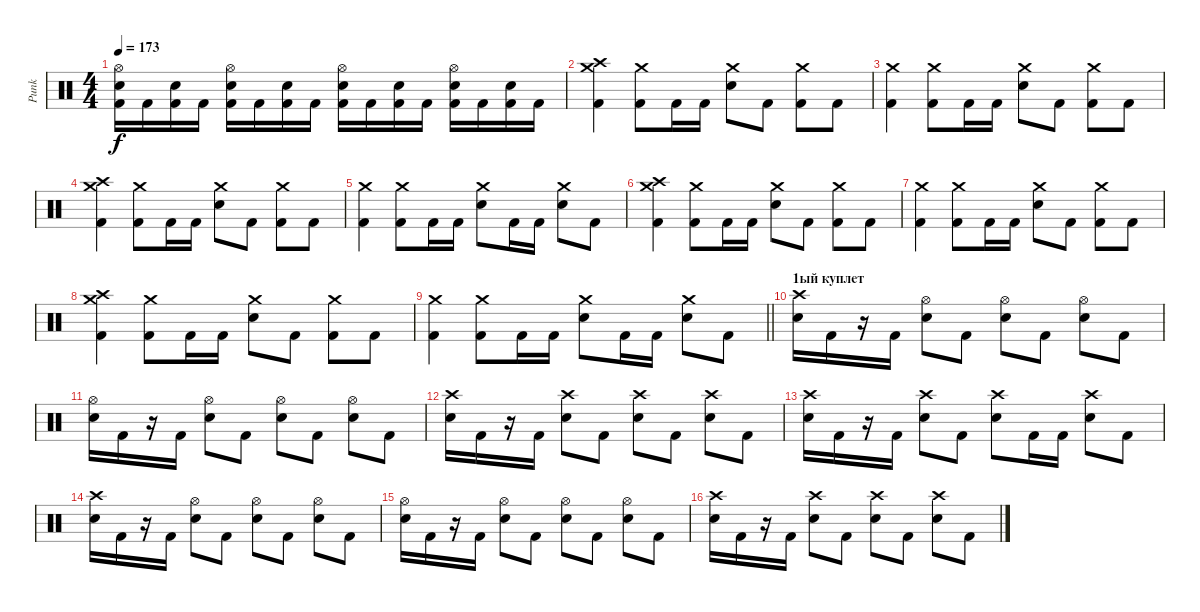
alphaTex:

\track ("Punk" "Punk") {instrument percussion}
\staff {score}
\articulation defaults
\ts (4 4)
\tempo 173
\clef neutral
\ks c
("Hi-Hat (open)" "Electric Snare (hit)" "Kick (hit) 2").16{dy f} "Kick (hit) 2".16 ("Electric Snare (hit)" "Kick (hit) 2").16 "Kick (hit) 2".16 ("Hi-Hat (open)" "Electric Snare (hit)" "Kick (hit) 2").16 "Kick (hit) 2".16 ("Electric Snare (hit)" "Kick (hit) 2").16 "Kick (hit) 2".16 ("Hi-Hat (open)" "Electric Snare (hit)" "Kick (hit) 2").16 "Kick (hit) 2".16 ("Electric Snare (hit)" "Kick (hit) 2").16 "Kick (hit) 2".16 ("Hi-Hat (open)" "Electric Snare (hit)" "Kick (hit) 2").16 "Kick (hit) 2".16 ("Electric Snare (hit)" "Kick (hit) 2").16 "Kick (hit) 2".16 |
("Crash medium (hit)" "Crash high (hit)" "Kick (hit) 2").4 ("Crash medium (hit)" "Kick (hit) 2").8 "Kick (hit) 2".16 "Kick (hit) 2".16 ("Crash medium (hit)" "Electric Snare (hit)").8 "Kick (hit) 2".8 ("Crash medium (hit)" "Kick (hit) 2").8 "Kick (hit) 2".8 |
("Crash medium (hit)" "Kick (hit) 2").4 ("Crash medium (hit)" "Kick (hit) 2").8 "Kick (hit) 2".16 "Kick (hit) 2".16 ("Crash medium (hit)" "Electric Snare (hit)").8 "Kick (hit) 2".8 ("Crash medium (hit)" "Kick (hit) 2").8 "Kick (hit) 2".8 |
("Crash medium (hit)" "Crash high (hit)" "Kick (hit) 2").4 ("Crash medium (hit)" "Kick (hit) 2").8 "Kick (hit) 2".16 "Kick (hit) 2".16 ("Crash medium (hit)" "Electric Snare (hit)").8 "Kick (hit) 2".8 ("Crash medium (hit)" "Kick (hit) 2").8 "Kick (hit) 2".8 |
("Crash medium (hit)" "Kick (hit) 2").4 ("Crash medium (hit)" "Kick (hit) 2").8 "Kick (hit) 2".16 "Kick (hit) 2".16 ("Crash medium (hit)" "Electric Snare (hit)").8 "Kick (hit) 2".16 "Kick (hit) 2".16 ("Crash medium (hit)" "Electric Snare (hit)").8 "Kick (hit) 2".8 |
("Crash medium (hit)" "Crash high (hit)" "Kick (hit) 2").4 ("Crash medium (hit)" "Kick (hit) 2").8 "Kick (hit) 2".16 "Kick (hit) 2".16 ("Crash medium (hit)" "Electric Snare (hit)").8 "Kick (hit) 2".8 ("Crash medium (hit)" "Kick (hit) 2").8 "Kick (hit) 2".8 |
("Crash medium (hit)" "Kick (hit) 2").4 ("Crash medium (hit)" "Kick (hit) 2").8 "Kick (hit) 2".16 "Kick (hit) 2".16 ("Crash medium (hit)" "Electric Snare (hit)").8 "Kick (hit) 2".8 ("Crash medium (hit)" "Kick (hit) 2").8 "Kick (hit) 2".8 |
("Crash medium (hit)" "Crash high (hit)" "Kick (hit) 2").4 ("Crash medium (hit)" "Kick (hit) 2").8 "Kick (hit) 2".16 "Kick (hit) 2".16 ("Crash medium (hit)" "Electric Snare (hit)").8 "Kick (hit) 2".8 ("Crash medium (hit)" "Kick (hit) 2").8 "Kick (hit) 2".8 |
\barLineRight lightlight
("Crash medium (hit)" "Kick (hit) 2").4 ("Crash medium (hit)" "Kick (hit) 2").8 "Kick (hit) 2".16 "Kick (hit) 2".16 ("Crash medium (hit)" "Electric Snare (hit)").8 "Kick (hit) 2".16 "Kick (hit) 2".16 ("Crash medium (hit)" "Electric Snare (hit)").8 "Kick (hit) 2".8 |
\section ("" "1ый куплет")
("Crash high (hit)" "Electric Snare (hit)").16 "Kick (hit) 2".16 r.16 "Kick (hit) 2".16 ("Hi-Hat (open)" "Electric Snare (hit)").8 "Kick (hit) 2".8 ("Hi-Hat (open)" "Electric Snare (hit)").8 "Kick (hit) 2".8 ("Hi-Hat (open)" "Electric Snare (hit)").8 "Kick (hit) 2".8 |
("Hi-Hat (open)" "Electric Snare (hit)").16 "Kick (hit) 2".16 r.16 "Kick (hit) 2".16 ("Hi-Hat (open)" "Electric Snare (hit)").8 "Kick (hit) 2".8 ("Hi-Hat (open)" "Electric Snare (hit)").8 "Kick (hit) 2".8 ("Hi-Hat (open)" "Electric Snare (hit)").8 "Kick (hit) 2".8 |
("Crash high (hit)" "Electric Snare (hit)").16 "Kick (hit) 2".16 r.16 "Kick (hit) 2".16 ("Crash high (hit)" "Electric Snare (hit)").8 "Kick (hit) 2".8 ("Crash high (hit)" "Electric Snare (hit)").8 "Kick (hit) 2".8 ("Crash high (hit)" "Electric Snare (hit)").8 "Kick (hit) 2".8 |
("Crash high (hit)" "Electric Snare (hit)").16 "Kick (hit) 2".16 r.16 "Kick (hit) 2".16 ("Crash high (hit)" "Electric Snare (hit)").8 "Kick (hit) 2".8 ("Crash high (hit)" "Electric Snare (hit)").8 "Kick (hit) 2".16 "Kick (hit) 2".16 ("Crash high (hit)" "Electric Snare (hit)").8 "Kick (hit) 2".8 |
("Crash high (hit)" "Electric Snare (hit)").16 "Kick (hit) 2".16 r.16 "Kick (hit) 2".16 ("Hi-Hat (open)" "Electric Snare (hit)").8 "Kick (hit) 2".8 ("Hi-Hat (open)" "Electric Snare (hit)").8 "Kick (hit) 2".8 ("Hi-Hat (open)" "Electric Snare (hit)").8 "Kick (hit) 2".8 |
("Hi-Hat (open)" "Electric Snare (hit)").16 "Kick (hit) 2".16 r.16 "Kick (hit) 2".16 ("Hi-Hat (open)" "Electric Snare (hit)").8 "Kick (hit) 2".8 ("Hi-Hat (open)" "Electric Snare (hit)").8 "Kick (hit) 2".8 ("Hi-Hat (open)" "Electric Snare (hit)").8 "Kick (hit) 2".8 |
("Crash high (hit)" "Electric Snare (hit)").16 "Kick (hit) 2".16 r.16 "Kick (hit) 2".16 ("Crash high (hit)" "Electric Snare (hit)").8 "Kick (hit) 2".8 ("Crash high (hit)" "Electric Snare (hit)").8 "Kick (hit) 2".8 ("Crash high (hit)" "Electric Snare (hit)").8 "Kick (hit) 2".8
